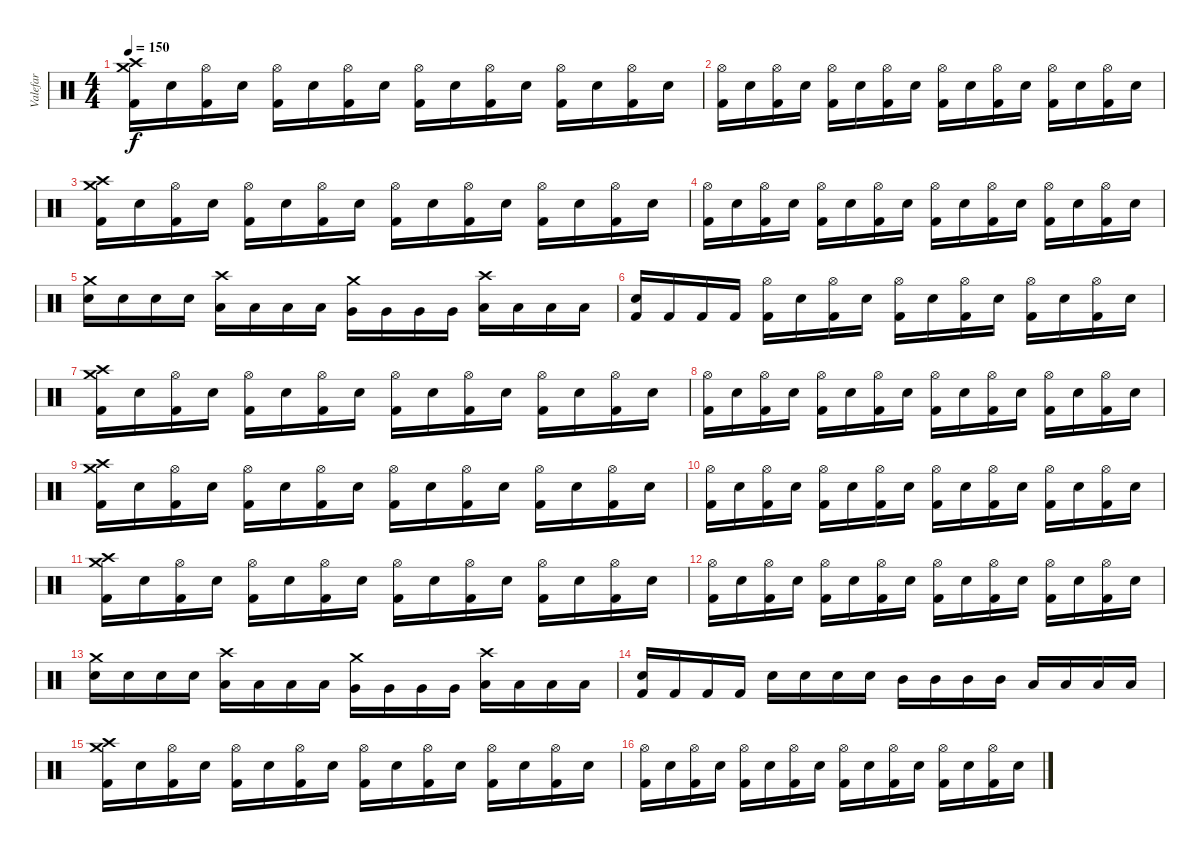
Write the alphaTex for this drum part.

\track ("Valefar" "Valefar") {instrument percussion}
\staff {score}
\articulation defaults
\ts (4 4)
\tempo 150
\clef neutral
\ks c
("Crash medium (hit)" "Crash high (hit)" "Kick (hit) 2").16{dy f} "Electric Snare (hit)".16 ("Hi-Hat (open)" "Kick (hit) 2").16 "Electric Snare (hit)".16 ("Hi-Hat (open)" "Kick (hit) 2").16 "Electric Snare (hit)".16 ("Hi-Hat (open)" "Kick (hit) 2").16 "Electric Snare (hit)".16 ("Hi-Hat (open)" "Kick (hit) 2").16 "Electric Snare (hit)".16 ("Hi-Hat (open)" "Kick (hit) 2").16 "Electric Snare (hit)".16 ("Hi-Hat (open)" "Kick (hit) 2").16 "Electric Snare (hit)".16 ("Hi-Hat (open)" "Kick (hit) 2").16 "Electric Snare (hit)".16 |
("Hi-Hat (open)" "Kick (hit) 2").16 "Electric Snare (hit)".16 ("Hi-Hat (open)" "Kick (hit) 2").16 "Electric Snare (hit)".16 ("Hi-Hat (open)" "Kick (hit) 2").16 "Electric Snare (hit)".16 ("Hi-Hat (open)" "Kick (hit) 2").16 "Electric Snare (hit)".16 ("Hi-Hat (open)" "Kick (hit) 2").16 "Electric Snare (hit)".16 ("Hi-Hat (open)" "Kick (hit) 2").16 "Electric Snare (hit)".16 ("Hi-Hat (open)" "Kick (hit) 2").16 "Electric Snare (hit)".16 ("Hi-Hat (open)" "Kick (hit) 2").16 "Electric Snare (hit)".16 |
("Crash medium (hit)" "Crash high (hit)" "Kick (hit) 2").16 "Electric Snare (hit)".16 ("Hi-Hat (open)" "Kick (hit) 2").16 "Electric Snare (hit)".16 ("Hi-Hat (open)" "Kick (hit) 2").16 "Electric Snare (hit)".16 ("Hi-Hat (open)" "Kick (hit) 2").16 "Electric Snare (hit)".16 ("Hi-Hat (open)" "Kick (hit) 2").16 "Electric Snare (hit)".16 ("Hi-Hat (open)" "Kick (hit) 2").16 "Electric Snare (hit)".16 ("Hi-Hat (open)" "Kick (hit) 2").16 "Electric Snare (hit)".16 ("Hi-Hat (open)" "Kick (hit) 2").16 "Electric Snare (hit)".16 |
("Hi-Hat (open)" "Kick (hit) 2").16 "Electric Snare (hit)".16 ("Hi-Hat (open)" "Kick (hit) 2").16 "Electric Snare (hit)".16 ("Hi-Hat (open)" "Kick (hit) 2").16 "Electric Snare (hit)".16 ("Hi-Hat (open)" "Kick (hit) 2").16 "Electric Snare (hit)".16 ("Hi-Hat (open)" "Kick (hit) 2").16 "Electric Snare (hit)".16 ("Hi-Hat (open)" "Kick (hit) 2").16 "Electric Snare (hit)".16 ("Hi-Hat (open)" "Kick (hit) 2").16 "Electric Snare (hit)".16 ("Hi-Hat (open)" "Kick (hit) 2").16 "Electric Snare (hit)".16 |
("Crash medium (hit)" "Electric Snare (hit)").16 "Electric Snare (hit)".16 "Electric Snare (hit)".16 "Electric Snare (hit)".16 ("Crash high (hit)" "Low Tom (hit)").16 "Low Tom (hit)".16 "Low Tom (hit)".16 "Low Tom (hit)".16 ("Crash medium (hit)" "Very Low Tom (hit)").16 "Very Low Tom (hit)".16 "Very Low Tom (hit)".16 "Very Low Tom (hit)".16 ("Crash high (hit)" "Low Floor Tom (hit)").16 "Low Floor Tom (hit)".16 "Low Floor Tom (hit)".16 "Low Floor Tom (hit)".16 |
("Electric Snare (hit)" "Kick (hit) 2").16 "Kick (hit) 2".16 "Kick (hit) 2".16 "Kick (hit) 2".16 ("Hi-Hat (open)" "Kick (hit) 2").16 "Electric Snare (hit)".16 ("Hi-Hat (open)" "Kick (hit) 2").16 "Electric Snare (hit)".16 ("Hi-Hat (open)" "Kick (hit) 2").16 "Electric Snare (hit)".16 ("Hi-Hat (open)" "Kick (hit) 2").16 "Electric Snare (hit)".16 ("Hi-Hat (open)" "Kick (hit) 2").16 "Electric Snare (hit)".16 ("Hi-Hat (open)" "Kick (hit) 2").16 "Electric Snare (hit)".16 |
("Crash medium (hit)" "Crash high (hit)" "Kick (hit) 2").16 "Electric Snare (hit)".16 ("Hi-Hat (open)" "Kick (hit) 2").16 "Electric Snare (hit)".16 ("Hi-Hat (open)" "Kick (hit) 2").16 "Electric Snare (hit)".16 ("Hi-Hat (open)" "Kick (hit) 2").16 "Electric Snare (hit)".16 ("Hi-Hat (open)" "Kick (hit) 2").16 "Electric Snare (hit)".16 ("Hi-Hat (open)" "Kick (hit) 2").16 "Electric Snare (hit)".16 ("Hi-Hat (open)" "Kick (hit) 2").16 "Electric Snare (hit)".16 ("Hi-Hat (open)" "Kick (hit) 2").16 "Electric Snare (hit)".16 |
("Hi-Hat (open)" "Kick (hit) 2").16 "Electric Snare (hit)".16 ("Hi-Hat (open)" "Kick (hit) 2").16 "Electric Snare (hit)".16 ("Hi-Hat (open)" "Kick (hit) 2").16 "Electric Snare (hit)".16 ("Hi-Hat (open)" "Kick (hit) 2").16 "Electric Snare (hit)".16 ("Hi-Hat (open)" "Kick (hit) 2").16 "Electric Snare (hit)".16 ("Hi-Hat (open)" "Kick (hit) 2").16 "Electric Snare (hit)".16 ("Hi-Hat (open)" "Kick (hit) 2").16 "Electric Snare (hit)".16 ("Hi-Hat (open)" "Kick (hit) 2").16 "Electric Snare (hit)".16 |
("Crash medium (hit)" "Crash high (hit)" "Kick (hit) 2").16 "Electric Snare (hit)".16 ("Hi-Hat (open)" "Kick (hit) 2").16 "Electric Snare (hit)".16 ("Hi-Hat (open)" "Kick (hit) 2").16 "Electric Snare (hit)".16 ("Hi-Hat (open)" "Kick (hit) 2").16 "Electric Snare (hit)".16 ("Hi-Hat (open)" "Kick (hit) 2").16 "Electric Snare (hit)".16 ("Hi-Hat (open)" "Kick (hit) 2").16 "Electric Snare (hit)".16 ("Hi-Hat (open)" "Kick (hit) 2").16 "Electric Snare (hit)".16 ("Hi-Hat (open)" "Kick (hit) 2").16 "Electric Snare (hit)".16 |
("Hi-Hat (open)" "Kick (hit) 2").16 "Electric Snare (hit)".16 ("Hi-Hat (open)" "Kick (hit) 2").16 "Electric Snare (hit)".16 ("Hi-Hat (open)" "Kick (hit) 2").16 "Electric Snare (hit)".16 ("Hi-Hat (open)" "Kick (hit) 2").16 "Electric Snare (hit)".16 ("Hi-Hat (open)" "Kick (hit) 2").16 "Electric Snare (hit)".16 ("Hi-Hat (open)" "Kick (hit) 2").16 "Electric Snare (hit)".16 ("Hi-Hat (open)" "Kick (hit) 2").16 "Electric Snare (hit)".16 ("Hi-Hat (open)" "Kick (hit) 2").16 "Electric Snare (hit)".16 |
("Crash medium (hit)" "Crash high (hit)" "Kick (hit) 2").16 "Electric Snare (hit)".16 ("Hi-Hat (open)" "Kick (hit) 2").16 "Electric Snare (hit)".16 ("Hi-Hat (open)" "Kick (hit) 2").16 "Electric Snare (hit)".16 ("Hi-Hat (open)" "Kick (hit) 2").16 "Electric Snare (hit)".16 ("Hi-Hat (open)" "Kick (hit) 2").16 "Electric Snare (hit)".16 ("Hi-Hat (open)" "Kick (hit) 2").16 "Electric Snare (hit)".16 ("Hi-Hat (open)" "Kick (hit) 2").16 "Electric Snare (hit)".16 ("Hi-Hat (open)" "Kick (hit) 2").16 "Electric Snare (hit)".16 |
("Hi-Hat (open)" "Kick (hit) 2").16 "Electric Snare (hit)".16 ("Hi-Hat (open)" "Kick (hit) 2").16 "Electric Snare (hit)".16 ("Hi-Hat (open)" "Kick (hit) 2").16 "Electric Snare (hit)".16 ("Hi-Hat (open)" "Kick (hit) 2").16 "Electric Snare (hit)".16 ("Hi-Hat (open)" "Kick (hit) 2").16 "Electric Snare (hit)".16 ("Hi-Hat (open)" "Kick (hit) 2").16 "Electric Snare (hit)".16 ("Hi-Hat (open)" "Kick (hit) 2").16 "Electric Snare (hit)".16 ("Hi-Hat (open)" "Kick (hit) 2").16 "Electric Snare (hit)".16 |
("Crash medium (hit)" "Electric Snare (hit)").16 "Electric Snare (hit)".16 "Electric Snare (hit)".16 "Electric Snare (hit)".16 ("Crash high (hit)" "Low Tom (hit)").16 "Low Tom (hit)".16 "Low Tom (hit)".16 "Low Tom (hit)".16 ("Crash medium (hit)" "Very Low Tom (hit)").16 "Very Low Tom (hit)".16 "Very Low Tom (hit)".16 "Very Low Tom (hit)".16 ("Crash high (hit)" "Low Floor Tom (hit)").16 "Low Floor Tom (hit)".16 "Low Floor Tom (hit)".16 "Low Floor Tom (hit)".16 |
("Electric Snare (hit)" "Kick (hit) 2").16 "Kick (hit) 2".16 "Kick (hit) 2".16 "Kick (hit) 2".16 "Electric Snare (hit)".16 "Electric Snare (hit)".16 "Electric Snare (hit)".16 "Electric Snare (hit)".16 "Mid Tom (hit)".16 "Mid Tom (hit)".16 "Mid Tom (hit)".16 "Mid Tom (hit)".16 "Low Tom (hit)".16 "Low Tom (hit)".16 "Low Tom (hit)".16 "Low Tom (hit)".16 |
("Crash medium (hit)" "Crash high (hit)" "Kick (hit) 2").16 "Electric Snare (hit)".16 ("Hi-Hat (open)" "Kick (hit) 2").16 "Electric Snare (hit)".16 ("Hi-Hat (open)" "Kick (hit) 2").16 "Electric Snare (hit)".16 ("Hi-Hat (open)" "Kick (hit) 2").16 "Electric Snare (hit)".16 ("Hi-Hat (open)" "Kick (hit) 2").16 "Electric Snare (hit)".16 ("Hi-Hat (open)" "Kick (hit) 2").16 "Electric Snare (hit)".16 ("Hi-Hat (open)" "Kick (hit) 2").16 "Electric Snare (hit)".16 ("Hi-Hat (open)" "Kick (hit) 2").16 "Electric Snare (hit)".16 |
("Hi-Hat (open)" "Kick (hit) 2").16 "Electric Snare (hit)".16 ("Hi-Hat (open)" "Kick (hit) 2").16 "Electric Snare (hit)".16 ("Hi-Hat (open)" "Kick (hit) 2").16 "Electric Snare (hit)".16 ("Hi-Hat (open)" "Kick (hit) 2").16 "Electric Snare (hit)".16 ("Hi-Hat (open)" "Kick (hit) 2").16 "Electric Snare (hit)".16 ("Hi-Hat (open)" "Kick (hit) 2").16 "Electric Snare (hit)".16 ("Hi-Hat (open)" "Kick (hit) 2").16 "Electric Snare (hit)".16 ("Hi-Hat (open)" "Kick (hit) 2").16 "Electric Snare (hit)".16
